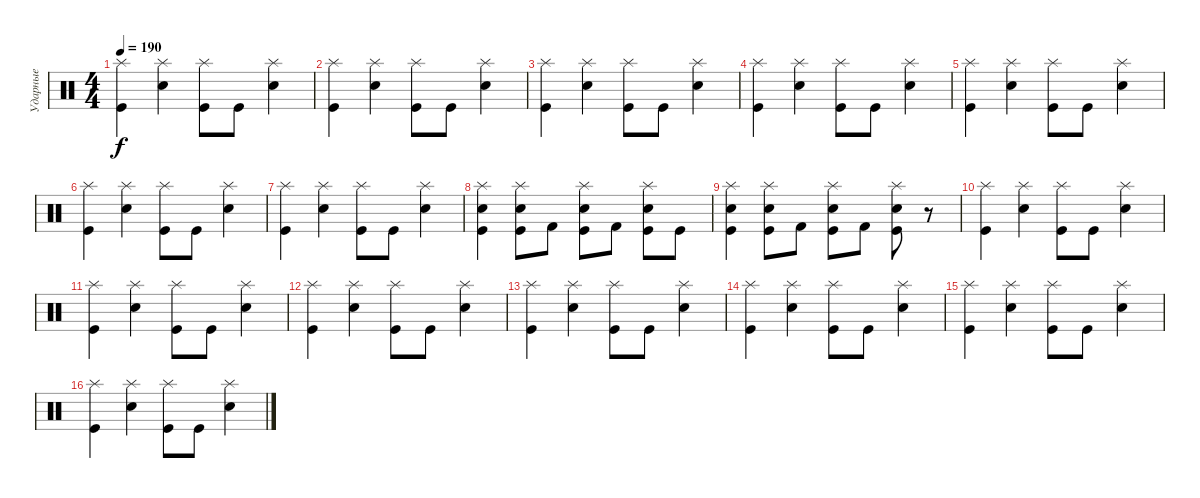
\track ("Ударные" "Ударные") {instrument percussion}
\staff {score}
\articulation defaults
\ts (4 4)
\tempo 190
\clef neutral
\ks c
("Splash (hit)" "Kick (hit)").4{dy f} ("Splash (hit)" "Electric Snare (hit)").4 ("Splash (hit)" "Kick (hit)").8 "Kick (hit)".8 ("Splash (hit)" "Electric Snare (hit)").4 |
("Splash (hit)" "Kick (hit)").4 ("Splash (hit)" "Electric Snare (hit)").4 ("Splash (hit)" "Kick (hit)").8 "Kick (hit)".8 ("Splash (hit)" "Electric Snare (hit)").4 |
("Splash (hit)" "Kick (hit)").4 ("Splash (hit)" "Electric Snare (hit)").4 ("Splash (hit)" "Kick (hit)").8 "Kick (hit)".8 ("Splash (hit)" "Electric Snare (hit)").4 |
("Splash (hit)" "Kick (hit)").4 ("Splash (hit)" "Electric Snare (hit)").4 ("Splash (hit)" "Kick (hit)").8 "Kick (hit)".8 ("Splash (hit)" "Electric Snare (hit)").4 |
("Splash (hit)" "Kick (hit)").4 ("Splash (hit)" "Electric Snare (hit)").4 ("Splash (hit)" "Kick (hit)").8 "Kick (hit)".8 ("Splash (hit)" "Electric Snare (hit)").4 |
("Splash (hit)" "Kick (hit)").4 ("Splash (hit)" "Electric Snare (hit)").4 ("Splash (hit)" "Kick (hit)").8 "Kick (hit)".8 ("Splash (hit)" "Electric Snare (hit)").4 |
("Splash (hit)" "Kick (hit)").4 ("Splash (hit)" "Electric Snare (hit)").4 ("Splash (hit)" "Kick (hit)").8 "Kick (hit)".8 ("Splash (hit)" "Electric Snare (hit)").4 |
("Splash (hit)" "Electric Snare (hit)" "Kick (hit)").4 ("Splash (hit)" "Electric Snare (hit)" "Kick (hit)").8 "Kick (hit) 2".8 ("Splash (hit)" "Electric Snare (hit)" "Kick (hit)").8 "Kick (hit) 2".8 ("Splash (hit)" "Electric Snare (hit)" "Kick (hit)").8 "Kick (hit)".8 |
("Splash (hit)" "Electric Snare (hit)" "Kick (hit)").4 ("Splash (hit)" "Electric Snare (hit)" "Kick (hit)").8 "Kick (hit) 2".8 ("Splash (hit)" "Electric Snare (hit)" "Kick (hit)").8 "Kick (hit) 2".8 ("Splash (hit)" "Electric Snare (hit)" "Kick (hit)").8 r.8 |
("Splash (hit)" "Kick (hit)").4 ("Splash (hit)" "Electric Snare (hit)").4 ("Splash (hit)" "Kick (hit)").8 "Kick (hit)".8 ("Splash (hit)" "Electric Snare (hit)").4 |
("Splash (hit)" "Kick (hit)").4 ("Splash (hit)" "Electric Snare (hit)").4 ("Splash (hit)" "Kick (hit)").8 "Kick (hit)".8 ("Splash (hit)" "Electric Snare (hit)").4 |
("Splash (hit)" "Kick (hit)").4 ("Splash (hit)" "Electric Snare (hit)").4 ("Splash (hit)" "Kick (hit)").8 "Kick (hit)".8 ("Splash (hit)" "Electric Snare (hit)").4 |
("Splash (hit)" "Kick (hit)").4 ("Splash (hit)" "Electric Snare (hit)").4 ("Splash (hit)" "Kick (hit)").8 "Kick (hit)".8 ("Splash (hit)" "Electric Snare (hit)").4 |
("Splash (hit)" "Kick (hit)").4 ("Splash (hit)" "Electric Snare (hit)").4 ("Splash (hit)" "Kick (hit)").8 "Kick (hit)".8 ("Splash (hit)" "Electric Snare (hit)").4 |
("Splash (hit)" "Kick (hit)").4 ("Splash (hit)" "Electric Snare (hit)").4 ("Splash (hit)" "Kick (hit)").8 "Kick (hit)".8 ("Splash (hit)" "Electric Snare (hit)").4 |
("Splash (hit)" "Kick (hit)").4 ("Splash (hit)" "Electric Snare (hit)").4 ("Splash (hit)" "Kick (hit)").8 "Kick (hit)".8 ("Splash (hit)" "Electric Snare (hit)").4
